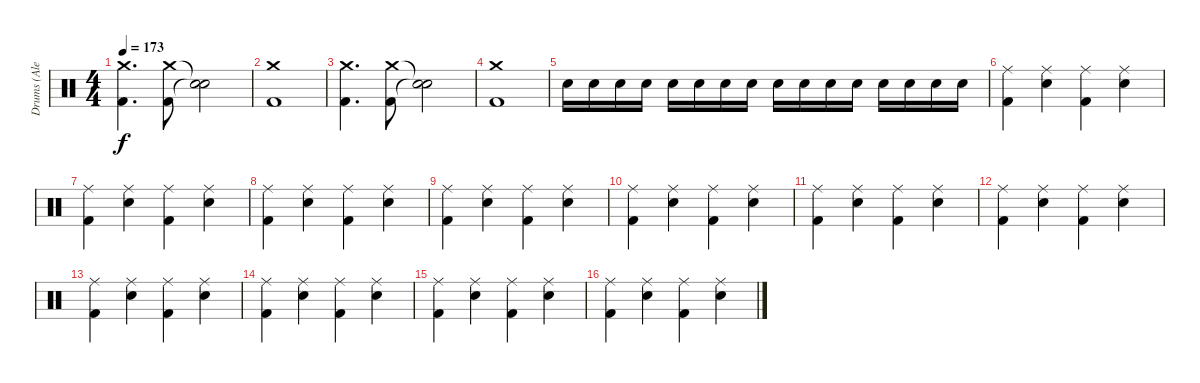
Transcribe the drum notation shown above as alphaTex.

\track ("Drums (Alex Van Halen)" "Drums (Ale") {instrument percussion}
\staff {score}
\articulation defaults
\ts (4 4)
\tempo 173
\clef neutral
\ks c
("Kick (hit) 2" "Crash medium (hit)").4{d dy f} ("Kick (hit) 2" "Crash medium (hit)").8 ("Snare (hit)"{t} "Snare (hit)"{t}).2 |
("Kick (hit) 2" "Crash medium (hit)").1 |
("Kick (hit) 2" "Crash medium (hit)").4{d} ("Kick (hit) 2" "Crash medium (hit)").8 ("Snare (hit)"{t} "Snare (hit)"{t}).2 |
("Kick (hit) 2" "Crash medium (hit)").1 |
"Snare (hit) 2".16 "Snare (hit) 2".16 "Snare (hit) 2".16 "Snare (hit) 2".16 "Snare (hit) 2".16 "Snare (hit) 2".16 "Snare (hit) 2".16 "Snare (hit) 2".16 "Snare (hit) 2".16 "Snare (hit) 2".16 "Snare (hit) 2".16 "Snare (hit) 2".16 "Snare (hit) 2".16 "Snare (hit) 2".16 "Snare (hit) 2".16 "Snare (hit) 2".16 |
("Kick (hit) 2" "Ride (middle)").4 ("Snare (hit) 2" "Ride (middle)").4 ("Kick (hit) 2" "Ride (middle)").4 ("Snare (hit) 2" "Ride (middle)").4 |
("Kick (hit) 2" "Ride (middle)").4 ("Snare (hit) 2" "Ride (middle)").4 ("Kick (hit) 2" "Ride (middle)").4 ("Snare (hit) 2" "Ride (middle)").4 |
("Kick (hit) 2" "Ride (middle)").4 ("Snare (hit) 2" "Ride (middle)").4 ("Kick (hit) 2" "Ride (middle)").4 ("Snare (hit) 2" "Ride (middle)").4 |
("Kick (hit) 2" "Ride (middle)").4 ("Snare (hit) 2" "Ride (middle)").4 ("Kick (hit) 2" "Ride (middle)").4 ("Snare (hit) 2" "Ride (middle)").4 |
("Kick (hit) 2" "Ride (middle)").4 ("Snare (hit) 2" "Ride (middle)").4 ("Kick (hit) 2" "Ride (middle)").4 ("Snare (hit) 2" "Ride (middle)").4 |
("Kick (hit) 2" "Ride (middle)").4 ("Snare (hit) 2" "Ride (middle)").4 ("Kick (hit) 2" "Ride (middle)").4 ("Snare (hit) 2" "Ride (middle)").4 |
("Kick (hit) 2" "Ride (middle)").4 ("Snare (hit) 2" "Ride (middle)").4 ("Kick (hit) 2" "Ride (middle)").4 ("Snare (hit) 2" "Ride (middle)").4 |
("Kick (hit) 2" "Ride (middle)").4 ("Snare (hit) 2" "Ride (middle)").4 ("Kick (hit) 2" "Ride (middle)").4 ("Snare (hit) 2" "Ride (middle)").4 |
("Kick (hit) 2" "Ride (middle)").4 ("Snare (hit) 2" "Ride (middle)").4 ("Kick (hit) 2" "Ride (middle)").4 ("Snare (hit) 2" "Ride (middle)").4 |
("Kick (hit) 2" "Ride (middle)").4 ("Snare (hit) 2" "Ride (middle)").4 ("Kick (hit) 2" "Ride (middle)").4 ("Snare (hit) 2" "Ride (middle)").4 |
("Kick (hit) 2" "Ride (middle)").4 ("Snare (hit) 2" "Ride (middle)").4 ("Kick (hit) 2" "Ride (middle)").4 ("Snare (hit) 2" "Ride (middle)").4
